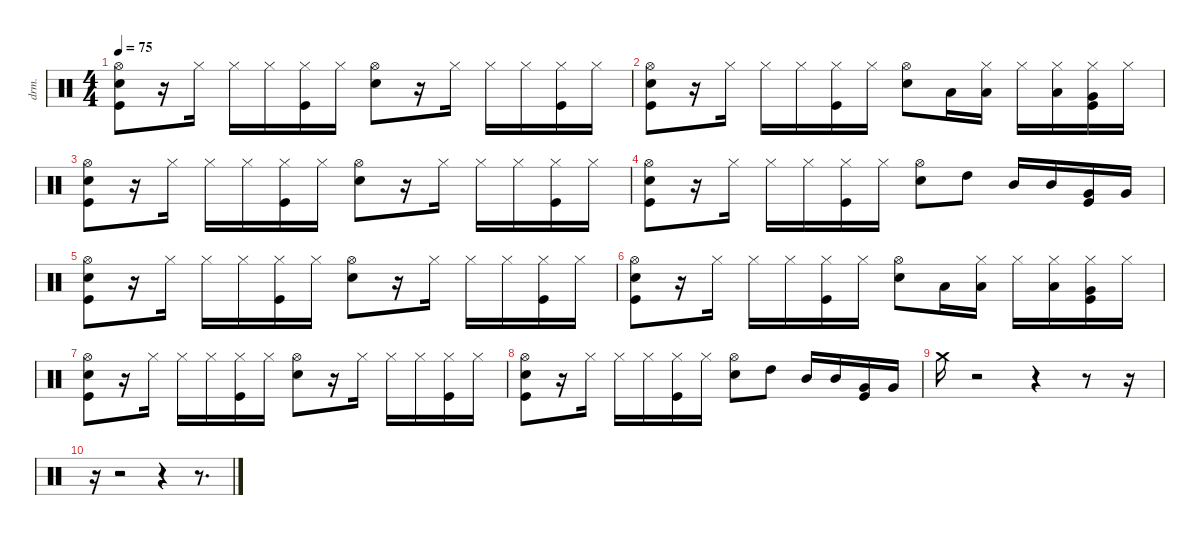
\defaultSystemsLayout 4
\hideDynamics
\bracketExtendMode nobrackets
\otherSystemsTrackNameOrientation horizontal
\track ("Drums" "drm.") {instrument percussion}
\staff {score}
\articulation defaults
\ts (4 4)
\tempo 75
\clef neutral
\ks c
("Hi-Hat (open)" "Kick (hit)" "Snare (hit) 2").8{dy f beam Down} r.16{beam Down} "Hi-Hat (closed)".16{beam Down} "Hi-Hat (closed)".16{beam Down} "Hi-Hat (closed)".16{beam Down} ("Kick (hit)" "Hi-Hat (closed)").16{beam Down} "Hi-Hat (closed)".16{beam Down} ("Snare (hit) 2" "Hi-Hat (open)").8{beam Down} r.16{beam Down} "Hi-Hat (closed)".16{beam Down} "Hi-Hat (closed)".16{beam Down} "Hi-Hat (closed)".16{beam Down} ("Kick (hit)" "Hi-Hat (closed)").16{beam Down} "Hi-Hat (closed)".16{beam Down} |
("Hi-Hat (open)" "Kick (hit)" "Snare (hit) 2").8{beam Down} r.16{beam Down} "Hi-Hat (closed)".16{beam Down} "Hi-Hat (closed)".16{beam Down} "Hi-Hat (closed)".16{beam Down} ("Kick (hit)" "Hi-Hat (closed)").16{beam Down} "Hi-Hat (closed)".16{beam Down} ("Snare (hit) 2" "Hi-Hat (open)").8{beam Down} "Low Tom (hit)".16{beam Down} ("Low Tom (hit)" "Hi-Hat (closed)").16{beam Down} "Hi-Hat (closed)".16{beam Down} ("Low Tom (hit)" "Hi-Hat (closed)").16{beam Down} ("Very Low Tom (hit)" "Kick (hit)" "Hi-Hat (closed)").16{beam Down} "Hi-Hat (closed)".16{beam Down} |
("Hi-Hat (open)" "Kick (hit)" "Snare (hit) 2").8{beam Down} r.16{beam Down} "Hi-Hat (closed)".16{beam Down} "Hi-Hat (closed)".16{beam Down} "Hi-Hat (closed)".16{beam Down} ("Kick (hit)" "Hi-Hat (closed)").16{beam Down} "Hi-Hat (closed)".16{beam Down} ("Snare (hit) 2" "Hi-Hat (open)").8{beam Down} r.16{beam Down} "Hi-Hat (closed)".16{beam Down} "Hi-Hat (closed)".16{beam Down} "Hi-Hat (closed)".16{beam Down} ("Kick (hit)" "Hi-Hat (closed)").16{beam Down} "Hi-Hat (closed)".16{beam Down} |
("Hi-Hat (open)" "Kick (hit)" "Snare (hit) 2").8{beam Down} r.16{beam Down} "Hi-Hat (closed)".16{beam Down} "Hi-Hat (closed)".16{beam Down} "Hi-Hat (closed)".16{beam Down} ("Kick (hit)" "Hi-Hat (closed)").16{beam Down} "Hi-Hat (closed)".16{beam Down} ("Snare (hit) 2" "Hi-Hat (open)").8{beam Down} "High Tom (hit)".8{beam Down} "Mid Tom (hit)".16{beam Up} "Mid Tom (hit)".16{beam Up} ("Very Low Tom (hit)" "Kick (hit)").16{beam Up} "Very Low Tom (hit)".16{beam Up} |
("Hi-Hat (open)" "Kick (hit)" "Snare (hit) 2").8{beam Down} r.16{beam Down} "Hi-Hat (closed)".16{beam Down} "Hi-Hat (closed)".16{beam Down} "Hi-Hat (closed)".16{beam Down} ("Kick (hit)" "Hi-Hat (closed)").16{beam Down} "Hi-Hat (closed)".16{beam Down} ("Snare (hit) 2" "Hi-Hat (open)").8{beam Down} r.16{beam Down} "Hi-Hat (closed)".16{beam Down} "Hi-Hat (closed)".16{beam Down} "Hi-Hat (closed)".16{beam Down} ("Kick (hit)" "Hi-Hat (closed)").16{beam Down} "Hi-Hat (closed)".16{beam Down} |
("Hi-Hat (open)" "Kick (hit)" "Snare (hit) 2").8{beam Down} r.16{beam Down} "Hi-Hat (closed)".16{beam Down} "Hi-Hat (closed)".16{beam Down} "Hi-Hat (closed)".16{beam Down} ("Kick (hit)" "Hi-Hat (closed)").16{beam Down} "Hi-Hat (closed)".16{beam Down} ("Snare (hit) 2" "Hi-Hat (open)").8{beam Down} "Low Tom (hit)".16{beam Down} ("Low Tom (hit)" "Hi-Hat (closed)").16{beam Down} "Hi-Hat (closed)".16{beam Down} ("Low Tom (hit)" "Hi-Hat (closed)").16{beam Down} ("Very Low Tom (hit)" "Kick (hit)" "Hi-Hat (closed)").16{beam Down} "Hi-Hat (closed)".16{beam Down} |
("Hi-Hat (open)" "Kick (hit)" "Snare (hit) 2").8{beam Down} r.16{beam Down} "Hi-Hat (closed)".16{beam Down} "Hi-Hat (closed)".16{beam Down} "Hi-Hat (closed)".16{beam Down} ("Kick (hit)" "Hi-Hat (closed)").16{beam Down} "Hi-Hat (closed)".16{beam Down} ("Snare (hit) 2" "Hi-Hat (open)").8{beam Down} r.16{beam Down} "Hi-Hat (closed)".16{beam Down} "Hi-Hat (closed)".16{beam Down} "Hi-Hat (closed)".16{beam Down} ("Kick (hit)" "Hi-Hat (closed)").16{beam Down} "Hi-Hat (closed)".16{beam Down} |
("Hi-Hat (open)" "Kick (hit)" "Snare (hit) 2").8{beam Down} r.16{beam Down} "Hi-Hat (closed)".16{beam Down} "Hi-Hat (closed)".16{beam Down} "Hi-Hat (closed)".16{beam Down} ("Kick (hit)" "Hi-Hat (closed)").16{beam Down} "Hi-Hat (closed)".16{beam Down} ("Snare (hit) 2" "Hi-Hat (open)").8{beam Down} "High Tom (hit)".8{beam Down} "Mid Tom (hit)".16{beam Up} "Mid Tom (hit)".16{beam Up} ("Very Low Tom (hit)" "Kick (hit)").16{beam Up} "Very Low Tom (hit)".16{beam Up} |
"Crash medium (hit)".16{beam Down} r.2{beam Down} r.4{beam Down} r.8{beam Down} r.16{beam Down} |
r.16{beam Down} r.2{beam Down} r.4{beam Down} r.8{d beam Down}
